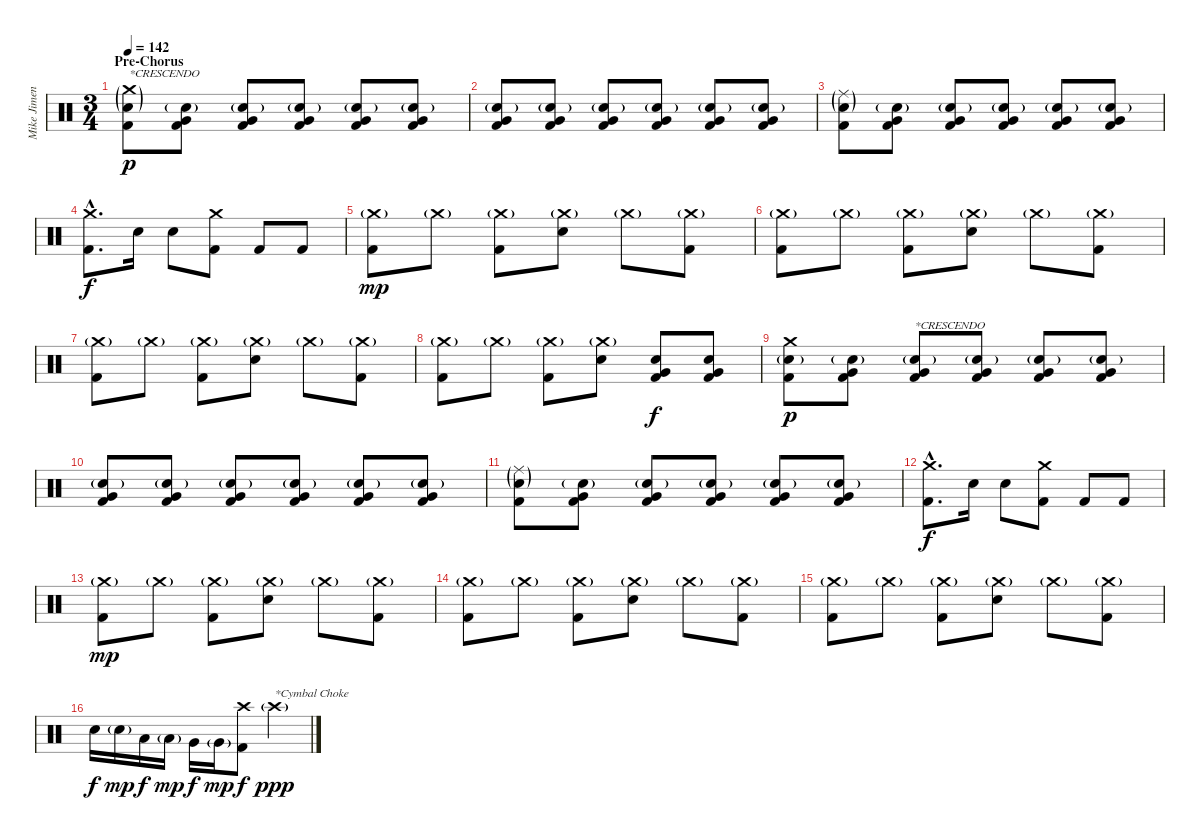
\track ("Mike Jimenez" "Mike Jimen") {instrument percussion}
\staff {score}
\articulation defaults
\ts (3 4)
\section ("" "Pre-Chorus")
\tempo 142
\clef neutral
\ks c
("Crash medium (hit)"{g} "Electric Snare (hit)"{g} "Kick (hit) 2").8{txt "*CRESCENDO" dy p volume 16} ("Electric Snare (hit)"{g} "Very Low Tom (hit)" "Kick (hit) 2").8 ("Electric Snare (hit)"{g} "Very Low Tom (hit)" "Kick (hit) 2").8 ("Electric Snare (hit)"{g} "Very Low Tom (hit)" "Kick (hit) 2").8 ("Electric Snare (hit)"{g} "Very Low Tom (hit)" "Kick (hit) 2").8 ("Electric Snare (hit)"{g} "Very Low Tom (hit)" "Kick (hit) 2").8 |
("Electric Snare (hit)"{g} "Very Low Tom (hit)" "Kick (hit) 2").8 ("Electric Snare (hit)"{g} "Very Low Tom (hit)" "Kick (hit) 2").8 ("Electric Snare (hit)"{g} "Very Low Tom (hit)" "Kick (hit) 2").8 ("Electric Snare (hit)"{g} "Very Low Tom (hit)" "Kick (hit) 2").8 ("Electric Snare (hit)"{g} "Very Low Tom (hit)" "Kick (hit) 2").8 ("Electric Snare (hit)"{g} "Very Low Tom (hit)" "Kick (hit) 2").8 |
("Ride (middle)"{g} "Electric Snare (hit)"{g} "Kick (hit) 2").8 ("Electric Snare (hit)"{g} "Very Low Tom (hit)" "Kick (hit) 2").8 ("Electric Snare (hit)"{g} "Very Low Tom (hit)" "Kick (hit) 2").8 ("Electric Snare (hit)"{g} "Very Low Tom (hit)" "Kick (hit) 2").8 ("Electric Snare (hit)"{g} "Very Low Tom (hit)" "Kick (hit) 2").8 ("Electric Snare (hit)"{g} "Very Low Tom (hit)" "Kick (hit) 2").8 |
("Crash medium (hit)"{hac} "Kick (hit) 2"{hac}).8{d dy f} "Electric Snare (hit)".16 "Electric Snare (hit)".8 ("Crash medium (hit)" "Kick (hit) 2").8 "Kick (hit) 2".8 "Kick (hit) 2".8 |
("Crash medium (hit)"{g} "Kick (hit) 2").8{dy mp} "Crash medium (hit)"{g}.8 ("Crash medium (hit)"{g} "Kick (hit) 2").8 ("Crash medium (hit)"{g} "Electric Snare (hit)").8 "Crash medium (hit)"{g}.8 ("Crash medium (hit)"{g} "Kick (hit) 2").8 |
("Crash medium (hit)"{g} "Kick (hit) 2").8 "Crash medium (hit)"{g}.8 ("Crash medium (hit)"{g} "Kick (hit) 2").8 ("Crash medium (hit)"{g} "Electric Snare (hit)").8 "Crash medium (hit)"{g}.8 ("Crash medium (hit)"{g} "Kick (hit) 2").8 |
("Crash medium (hit)"{g} "Kick (hit) 2").8 "Crash medium (hit)"{g}.8 ("Crash medium (hit)"{g} "Kick (hit) 2").8 ("Crash medium (hit)"{g} "Electric Snare (hit)").8 "Crash medium (hit)"{g}.8 ("Crash medium (hit)"{g} "Kick (hit) 2").8 |
("Crash medium (hit)"{g} "Kick (hit) 2").8 "Crash medium (hit)"{g}.8 ("Crash medium (hit)"{g} "Kick (hit) 2").8 ("Crash medium (hit)"{g} "Electric Snare (hit)").8 ("Electric Snare (hit)" "Very Low Tom (hit)" "Kick (hit) 2").8{dy f} ("Electric Snare (hit)" "Very Low Tom (hit)" "Kick (hit) 2").8 |
("Crash medium (hit)" "Electric Snare (hit)"{g} "Kick (hit) 2").8{dy p volume 11} ("Electric Snare (hit)"{g} "Very Low Tom (hit)" "Kick (hit) 2").8 ("Electric Snare (hit)"{g} "Very Low Tom (hit)" "Kick (hit) 2").8{txt "*CRESCENDO" volume 16} ("Electric Snare (hit)"{g} "Very Low Tom (hit)" "Kick (hit) 2").8 ("Electric Snare (hit)"{g} "Very Low Tom (hit)" "Kick (hit) 2").8 ("Electric Snare (hit)"{g} "Very Low Tom (hit)" "Kick (hit) 2").8 |
("Electric Snare (hit)"{g} "Very Low Tom (hit)" "Kick (hit) 2").8 ("Electric Snare (hit)"{g} "Very Low Tom (hit)" "Kick (hit) 2").8 ("Electric Snare (hit)"{g} "Very Low Tom (hit)" "Kick (hit) 2").8 ("Electric Snare (hit)"{g} "Very Low Tom (hit)" "Kick (hit) 2").8 ("Electric Snare (hit)"{g} "Very Low Tom (hit)" "Kick (hit) 2").8 ("Electric Snare (hit)"{g} "Very Low Tom (hit)" "Kick (hit) 2").8 |
("Ride (middle)"{g} "Electric Snare (hit)"{g} "Kick (hit) 2").8 ("Electric Snare (hit)"{g} "Very Low Tom (hit)" "Kick (hit) 2").8 ("Electric Snare (hit)"{g} "Very Low Tom (hit)" "Kick (hit) 2").8 ("Electric Snare (hit)"{g} "Very Low Tom (hit)" "Kick (hit) 2").8 ("Electric Snare (hit)"{g} "Very Low Tom (hit)" "Kick (hit) 2").8 ("Electric Snare (hit)"{g} "Very Low Tom (hit)" "Kick (hit) 2").8 |
("Crash medium (hit)"{hac} "Kick (hit) 2"{hac}).8{d dy f} "Electric Snare (hit)".16 "Electric Snare (hit)".8 ("Crash medium (hit)" "Kick (hit) 2").8 "Kick (hit) 2".8 "Kick (hit) 2".8 |
("Crash medium (hit)"{g} "Kick (hit) 2").8{dy mp} "Crash medium (hit)"{g}.8 ("Crash medium (hit)"{g} "Kick (hit) 2").8 ("Crash medium (hit)"{g} "Electric Snare (hit)").8 "Crash medium (hit)"{g}.8 ("Crash medium (hit)"{g} "Kick (hit) 2").8 |
("Crash medium (hit)"{g} "Kick (hit) 2").8 "Crash medium (hit)"{g}.8 ("Crash medium (hit)"{g} "Kick (hit) 2").8 ("Crash medium (hit)"{g} "Electric Snare (hit)").8 "Crash medium (hit)"{g}.8 ("Crash medium (hit)"{g} "Kick (hit) 2").8 |
("Crash medium (hit)"{g} "Kick (hit) 2").8 "Crash medium (hit)"{g}.8 ("Crash medium (hit)"{g} "Kick (hit) 2").8 ("Crash medium (hit)"{g} "Electric Snare (hit)").8 "Crash medium (hit)"{g}.8 ("Crash medium (hit)"{g} "Kick (hit) 2").8 |
"Electric Snare (hit)".16{dy f} "Electric Snare (hit)"{g}.16{dy mp} "Low Tom (hit)".16{dy f} "Low Tom (hit)"{g}.16{dy mp} "Very Low Tom (hit)".16{dy f} "Very Low Tom (hit)"{g}.16{dy mp} ("Crash high (hit)" "Kick (hit) 2").8{dy f} "Crash high (hit)"{g}.4{txt "*Cymbal Choke" dy ppp}
